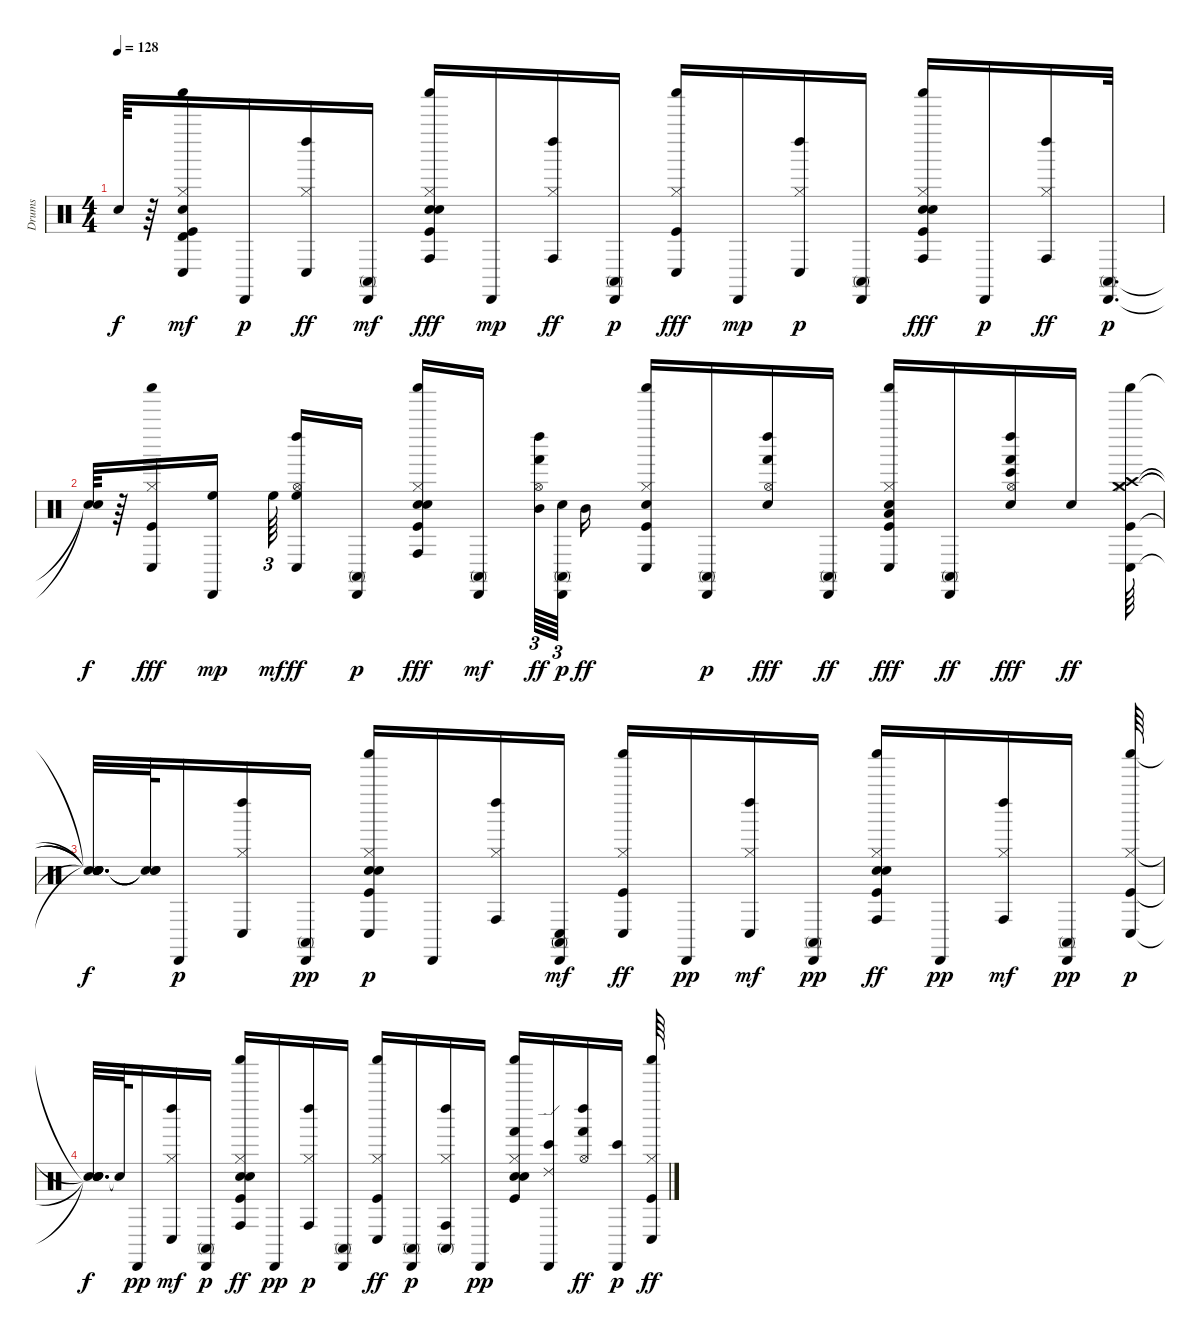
\track ("Drums" "Drums") {instrument percussion}
\staff {score}
\articulation defaults
\ts (4 4)
\tempo 128
\clef neutral
\ks c "Snare (hit)"{t}.64{dy f}
r.64 ("Kick (hit)" "Snare (hit) 2" "Hi-Hat (closed)" "Shaker (hit)" "Conga low (hit)" "Timbale high (hit)").16{dy mf} "Cabasa (hit)".16{dy p} ("Hi-Hat (closed)" "Left Maraca (hit)" "Conga low (hit)").16{dy ff} ("Cabasa (hit)" "Conga high (mute)").16{dy mf} ("Kick (hit)" "Snare (hit) 2" "Hand Clap (hit)" "Hi-Hat (closed)" "Shaker (hit)" "Conga high (hit)").16{dy fff} "Cabasa (hit)".16{dy mp} ("Hi-Hat (closed)" "Left Maraca (hit)" "Conga high (hit)").16{dy ff} ("Cabasa (hit)" "Conga high (mute)").16{dy p} ("Kick (hit)" "Hi-Hat (closed)" "Shaker (hit)" "Conga low (hit)").16{dy fff} "Cabasa (hit)".16{dy mp} ("Hi-Hat (closed)" "Left Maraca (hit)" "Conga low (hit)").16{dy p} ("Cabasa (hit)" "Conga high (mute)").16 ("Kick (hit)" "Snare (hit) 2" "Hand Clap (hit)" "Hi-Hat (closed)" "Shaker (hit)" "Conga high (hit)").16{dy fff} "Cabasa (hit)".16{dy p} ("Hi-Hat (closed)" "Left Maraca (hit)" "Conga high (hit)").16{dy ff} ("Cabasa (hit)" "Conga high (mute)").32{d dy p} |
("Snare (hit)"{t} "Snare (hit)"{t}).64{dy f} r.64 ("Kick (hit)" "Hi-Hat (closed)" "Shaker (hit)" "Conga low (hit)").16{dy fff} ("Cabasa (hit)" "High Floor Tom (hit)").16{dy mp} "High Floor Tom (hit)".64{tu (3 2) dy mf} ("Hi-Hat (open)" "Left Maraca (hit)" "High Floor Tom (hit)" "Conga low (hit)").16{dy ff} ("Cabasa (hit)" "Conga high (mute)").16{dy p} ("Kick (hit)" "Snare (hit) 2" "Hand Clap (hit)" "Hi-Hat (closed)" "Shaker (hit)" "Conga high (hit)").16{dy fff} ("Cabasa (hit)" "Conga high (mute)").16{dy mf} ("Hi-Hat (open)" "Left Maraca (hit)" "Hand (hit)" "Mid Tom (hit)").64{tu (3 2) dy ff} ("Snare (hit) 2" "Cabasa (hit)" "Conga high (mute)").64{tu (3 2) dy p} "Mid Tom (hit)".16{dy ff} ("Kick (hit)" "Snare (hit) 2" "Hi-Hat (closed)" "Shaker (hit)" "Conga low (hit)").16 ("Cabasa (hit)" "Conga high (mute)").16{dy p} ("Snare (hit) 2" "Hi-Hat (open)" "Left Maraca (hit)" "Hand (hit)").16{dy fff} ("Cabasa (hit)" "Conga high (mute)").16{dy ff} ("Low Tom (hit)" "Kick (hit)" "Hand Clap (hit)" "Hi-Hat (closed)" "Shaker (hit)" "Conga low (hit)").16{dy fff} ("Cabasa (hit)" "Conga high (mute)").16{dy ff} ("Snare (hit) 2" "Hi-Hat (open)" "Left Maraca (hit)" "Hand (hit)" "Bongo High (hit)").16{dy fff} "Snare (hit) 2".16{dy ff} ("Kick (hit)" "Hi-Hat (closed)" "Crash high (hit)" "Crash medium (hit)" "Shaker (hit)" "Conga low (hit)").64 |
("Snare (hit)"{t} "Snare (hit)"{t} "Snare (hit)"{t} "Snare (hit)"{t} "Snare (hit)"{t} "Snare (hit)"{t}).32{d dy f} ("Snare (hit)"{t} "Snare (hit)"{t} "Snare (hit)"{t}).64 "Cabasa (hit)".16{dy p} ("Hi-Hat (closed)" "Left Maraca (hit)" "Conga low (hit)").16 ("Cabasa (hit)" "Conga high (mute)").16{dy pp} ("Kick (hit)" "Electric Snare (hit)" "Hand Clap (hit)" "Hi-Hat (closed)" "Shaker (hit)" "Conga low (hit)").16{dy p} "Cabasa (hit)".16 ("Hi-Hat (closed)" "Left Maraca (hit)" "Conga high (hit)").16 ("Cabasa (hit)" "Conga high (mute)" "Conga low (hit)").16{dy mf} ("Kick (hit)" "Hi-Hat (closed)" "Shaker (hit)" "Conga low (hit)").16{dy ff} "Cabasa (hit)".16{dy pp} ("Hi-Hat (closed)" "Left Maraca (hit)" "Conga low (hit)").16{dy mf} ("Cabasa (hit)" "Conga high (mute)").16{dy pp} ("Kick (hit)" "Electric Snare (hit)" "Hand Clap (hit)" "Hi-Hat (closed)" "Shaker (hit)" "Conga high (hit)").16{dy ff} "Cabasa (hit)".16{dy pp} ("Hi-Hat (closed)" "Left Maraca (hit)" "Conga high (hit)").16{dy mf} ("Cabasa (hit)" "Conga high (mute)").16{dy pp} ("Kick (hit)" "Hi-Hat (closed)" "Shaker (hit)" "Conga low (hit)").64{dy p} |
("Snare (hit)"{t} "Snare (hit)"{t} "Snare (hit)"{t} "Snare (hit)"{t}).32{d dy f} "Snare (hit)"{t}.64 "Cabasa (hit)".16{dy pp} ("Hi-Hat (closed)" "Left Maraca (hit)" "Conga low (hit)").16{dy mf} ("Cabasa (hit)" "Conga high (mute)").16{dy p} ("Kick (hit)" "Electric Snare (hit)" "Hand Clap (hit)" "Hi-Hat (closed)" "Shaker (hit)" "Conga high (hit)").16{dy ff} "Cabasa (hit)".16{dy pp} ("Hi-Hat (closed)" "Left Maraca (hit)" "Conga high (hit)").16{dy p} ("Cabasa (hit)" "Conga high (mute)").16 ("Kick (hit)" "Hi-Hat (closed)" "Shaker (hit)" "Conga low (hit)").16{dy ff} ("Cabasa (hit)" "Conga high (mute)").16{dy p} ("Hi-Hat (closed)" "Left Maraca (hit)" "Conga high (hit)" "Conga high (mute)").16 "Cabasa (hit)".16{dy pp} ("Kick (hit)" "Electric Snare (hit)" "Hand Clap (hit)" "Hi-Hat (closed)" "Shaker (hit)" "Hand (hit)").16 ("Cabasa (hit)" "Bongo High (hit)" "Ride (edge) 2").16 ("Hi-Hat (open)" "Left Maraca (hit)" "Hand (hit)").16{dy ff} ("Cabasa (hit)" "Bongo High (hit)").16{dy p} ("Kick (hit)" "Hi-Hat (closed)" "Shaker (hit)" "Conga low (hit)").64{dy ff}
